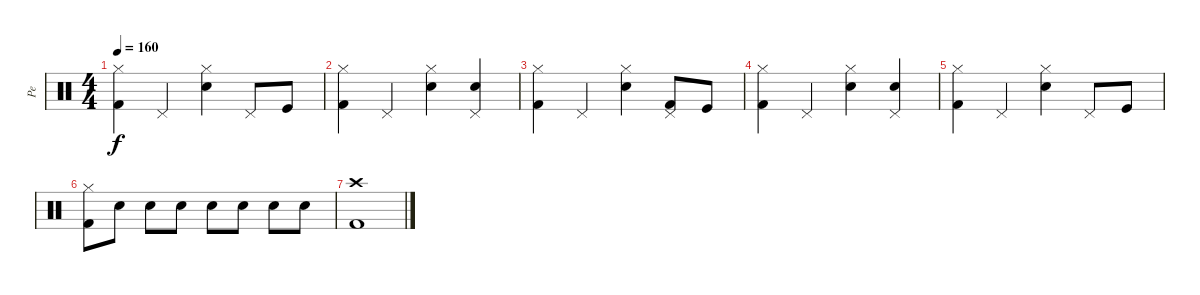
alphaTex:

\track ("Pe" "Pe") {instrument percussion}
\staff {score}
\articulation defaults
\ts (4 4)
\tempo 160
\clef neutral
\ks c
("Kick (hit) 2" "Hi-Hat (closed)").4{dy f} "Pedal Hi-Hat (hit)".4 ("Electric Snare (hit)" "Hi-Hat (closed)").4 "Pedal Hi-Hat (hit)".8 "Kick (hit)".8 |
("Kick (hit) 2" "Hi-Hat (closed)").4 "Pedal Hi-Hat (hit)".4 ("Electric Snare (hit)" "Hi-Hat (closed)").4 ("Electric Snare (hit)" "Pedal Hi-Hat (hit)").4 |
("Kick (hit) 2" "Hi-Hat (closed)").4 "Pedal Hi-Hat (hit)".4 ("Electric Snare (hit)" "Hi-Hat (closed)").4 ("Kick (hit) 2" "Pedal Hi-Hat (hit)").8 "Kick (hit)".8 |
("Kick (hit) 2" "Hi-Hat (closed)").4 "Pedal Hi-Hat (hit)".4 ("Electric Snare (hit)" "Hi-Hat (closed)").4 ("Electric Snare (hit)" "Pedal Hi-Hat (hit)").4 |
("Kick (hit) 2" "Hi-Hat (closed)").4 "Pedal Hi-Hat (hit)".4 ("Electric Snare (hit)" "Hi-Hat (closed)").4 "Pedal Hi-Hat (hit)".8 "Kick (hit)".8 |
("Kick (hit) 2" "Hi-Hat (closed)").8 "Electric Snare (hit)".8 "Electric Snare (hit)".8 "Electric Snare (hit)".8 "Electric Snare (hit)".8 "Electric Snare (hit)".8 "Electric Snare (hit)".8 "Electric Snare (hit)".8 |
("Kick (hit) 2" "Crash high (hit)").1
